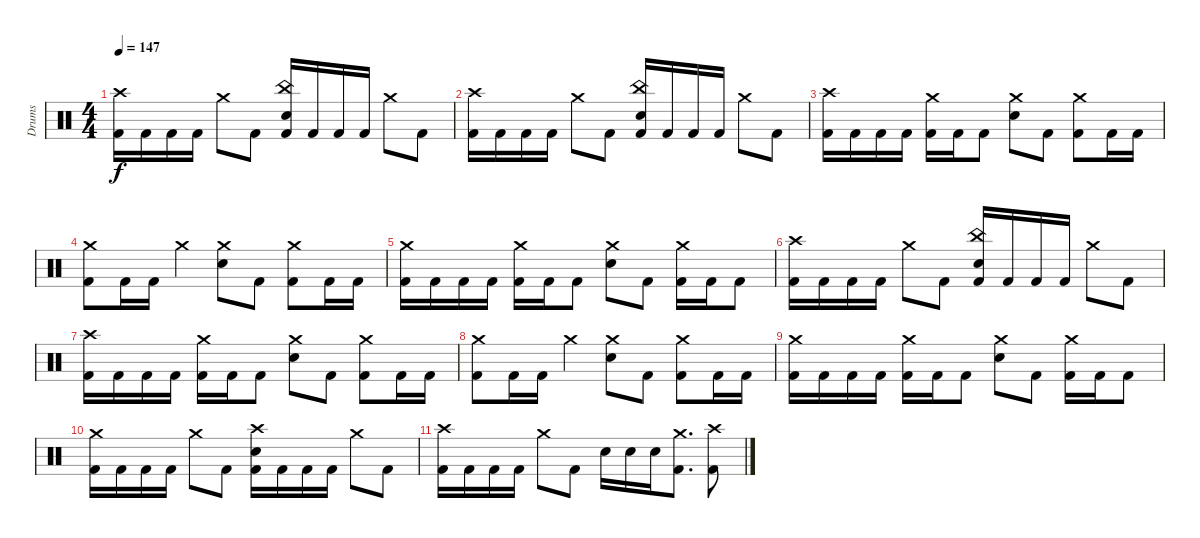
\track ("Drums" "Drums") {instrument percussion}
\staff {score}
\articulation defaults
\ts (4 4)
\tempo 147
\clef neutral
\ks c
("Crash high (hit)" "Kick (hit) 2").16{dy f} "Kick (hit) 2".16 "Kick (hit) 2".16 "Kick (hit) 2".16 "Crash medium (hit)".8 "Kick (hit) 2".8 ("China (hit)" "Snare (hit) 2" "Kick (hit) 2").16 "Kick (hit) 2".16 "Kick (hit) 2".16 "Kick (hit) 2".16 "Crash medium (hit)".8 "Kick (hit) 2".8 |
("Crash high (hit)" "Kick (hit) 2").16 "Kick (hit) 2".16 "Kick (hit) 2".16 "Kick (hit) 2".16 "Crash medium (hit)".8 "Kick (hit) 2".8 ("China (hit)" "Snare (hit) 2" "Kick (hit) 2").16 "Kick (hit) 2".16 "Kick (hit) 2".16 "Kick (hit) 2".16 "Crash medium (hit)".8 "Kick (hit) 2".8 |
("Crash high (hit)" "Kick (hit) 2").16 "Kick (hit) 2".16 "Kick (hit) 2".16 "Kick (hit) 2".16 ("Crash medium (hit)" "Kick (hit) 2").16 "Kick (hit) 2".16 "Kick (hit) 2".8 ("Crash medium (hit)" "Snare (hit) 2").8 "Kick (hit) 2".8 ("Crash medium (hit)" "Kick (hit) 2").8 "Kick (hit) 2".16 "Kick (hit) 2".16 |
("Crash medium (hit)" "Kick (hit) 2").8 "Kick (hit) 2".16 "Kick (hit) 2".16 "Crash medium (hit)".4 ("Crash medium (hit)" "Snare (hit) 2").8 "Kick (hit) 2".8 ("Crash medium (hit)" "Kick (hit) 2").8 "Kick (hit) 2".16 "Kick (hit) 2".16 |
("Crash medium (hit)" "Kick (hit) 2").16 "Kick (hit) 2".16 "Kick (hit) 2".16 "Kick (hit) 2".16 ("Crash medium (hit)" "Kick (hit) 2").16 "Kick (hit) 2".16 "Kick (hit) 2".8 ("Crash medium (hit)" "Snare (hit) 2").8 "Kick (hit) 2".8 ("Crash medium (hit)" "Kick (hit) 2").16 "Kick (hit) 2".16 "Kick (hit) 2".8 |
("Crash high (hit)" "Kick (hit) 2").16 "Kick (hit) 2".16 "Kick (hit) 2".16 "Kick (hit) 2".16 "Crash medium (hit)".8 "Kick (hit) 2".8 ("China (hit)" "Snare (hit) 2" "Kick (hit) 2").16 "Kick (hit) 2".16 "Kick (hit) 2".16 "Kick (hit) 2".16 "Crash medium (hit)".8 "Kick (hit) 2".8 |
("Crash high (hit)" "Kick (hit) 2").16 "Kick (hit) 2".16 "Kick (hit) 2".16 "Kick (hit) 2".16 ("Crash medium (hit)" "Kick (hit) 2").16 "Kick (hit) 2".16 "Kick (hit) 2".8 ("Crash medium (hit)" "Snare (hit) 2").8 "Kick (hit) 2".8 ("Crash medium (hit)" "Kick (hit) 2").8 "Kick (hit) 2".16 "Kick (hit) 2".16 |
("Crash medium (hit)" "Kick (hit) 2").8 "Kick (hit) 2".16 "Kick (hit) 2".16 "Crash medium (hit)".4 ("Crash medium (hit)" "Snare (hit) 2").8 "Kick (hit) 2".8 ("Crash medium (hit)" "Kick (hit) 2").8 "Kick (hit) 2".16 "Kick (hit) 2".16 |
("Crash medium (hit)" "Kick (hit) 2").16 "Kick (hit) 2".16 "Kick (hit) 2".16 "Kick (hit) 2".16 ("Crash medium (hit)" "Kick (hit) 2").16 "Kick (hit) 2".16 "Kick (hit) 2".8 ("Crash medium (hit)" "Snare (hit) 2").8 "Kick (hit) 2".8 ("Crash medium (hit)" "Kick (hit) 2").16 "Kick (hit) 2".16 "Kick (hit) 2".8 |
("Crash medium (hit)" "Kick (hit) 2").16 "Kick (hit) 2".16 "Kick (hit) 2".16 "Kick (hit) 2".16 "Crash medium (hit)".8 "Kick (hit) 2".8 ("Crash high (hit)" "Snare (hit) 2" "Kick (hit) 2").16 "Kick (hit) 2".16 "Kick (hit) 2".16 "Kick (hit) 2".16 "Crash medium (hit)".8 "Kick (hit) 2".8 |
("Crash high (hit)" "Kick (hit) 2").16 "Kick (hit) 2".16 "Kick (hit) 2".16 "Kick (hit) 2".16 "Crash medium (hit)".8 "Kick (hit) 2".8 "Snare (hit) 2".16 "Snare (hit) 2".16 "Snare (hit) 2".16 ("Crash medium (hit)" "Kick (hit) 2").8{d} ("Crash high (hit)" "Kick (hit) 2").8
